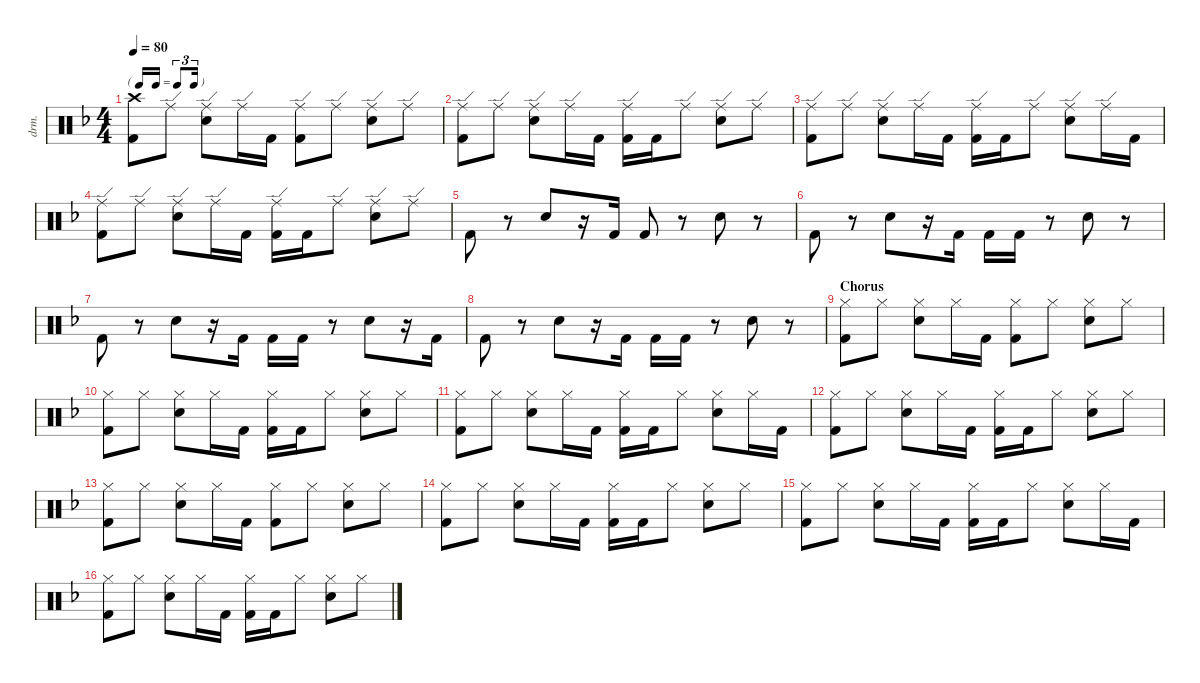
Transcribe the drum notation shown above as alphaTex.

\defaultSystemsLayout 4
\hideDynamics
\bracketExtendMode nobrackets
\otherSystemsTrackNameOrientation horizontal
\track ("Drumkit" "drm.") {instrument percussion}
\staff {score}
\articulation defaults
\ts (4 4)
\tf triplet16th
\tempo 80
\clef neutral
\ks dminor
("Kick (hit) 2"{acc forcenatural} "Crash high (hit)"{acc forcenatural}).8{dy mf beam Down} "Ride (edge)"{acc forcenatural}.8{beam Down} ("Snare (hit) 2"{acc forcenatural} "Ride (edge)"{acc forcenatural}).8{beam Down} "Ride (edge)"{acc forcenatural}.16{beam Down} "Kick (hit) 2"{acc forcenatural}.16{beam Down} ("Kick (hit) 2"{acc forcenatural} "Ride (edge)"{acc forcenatural}).8{beam Down} "Ride (edge)"{acc forcenatural}.8{beam Down} ("Snare (hit) 2"{acc forcenatural} "Ride (edge)"{acc forcenatural}).8{beam Down} "Ride (edge)"{acc forcenatural}.8{beam Down} |
("Kick (hit) 2"{acc forcenatural} "Ride (edge)"{acc forcenatural}).8{beam Down} "Ride (edge)"{acc forcenatural}.8{beam Down} ("Snare (hit) 2"{acc forcenatural} "Ride (edge)"{acc forcenatural}).8{beam Down} "Ride (edge)"{acc forcenatural}.16{beam Down} "Kick (hit) 2"{acc forcenatural}.16{beam Down} ("Kick (hit) 2"{acc forcenatural} "Ride (edge)"{acc forcenatural}).16{beam Down} "Kick (hit) 2"{acc forcenatural}.16{beam Down} "Ride (edge)"{acc forcenatural}.8{beam Down} ("Snare (hit) 2"{acc forcenatural} "Ride (edge)"{acc forcenatural}).8{beam Down} "Ride (edge)"{acc forcenatural}.8{beam Down} |
("Kick (hit) 2"{acc forcenatural} "Ride (edge)"{acc forcenatural}).8{beam Down} "Ride (edge)"{acc forcenatural}.8{beam Down} ("Snare (hit) 2"{acc forcenatural} "Ride (edge)"{acc forcenatural}).8{beam Down} "Ride (edge)"{acc forcenatural}.16{beam Down} "Kick (hit) 2"{acc forcenatural}.16{beam Down} ("Kick (hit) 2"{acc forcenatural} "Ride (edge)"{acc forcenatural}).16{beam Down} "Kick (hit) 2"{acc forcenatural}.16{beam Down} "Ride (edge)"{acc forcenatural}.8{beam Down} ("Snare (hit) 2"{acc forcenatural} "Ride (edge)"{acc forcenatural}).8{beam Down} "Ride (edge)"{acc forcenatural}.16{beam Down} "Kick (hit) 2"{acc forcenatural}.16{beam Down} |
("Kick (hit) 2"{acc forcenatural} "Ride (edge)"{acc forcenatural}).8{beam Down} "Ride (edge)"{acc forcenatural}.8{beam Down} ("Snare (hit) 2"{acc forcenatural} "Ride (edge)"{acc forcenatural}).8{beam Down} "Ride (edge)"{acc forcenatural}.16{beam Down} "Kick (hit) 2"{acc forcenatural}.16{beam Down} ("Kick (hit) 2"{acc forcenatural} "Ride (edge)"{acc forcenatural}).16{beam Down} "Kick (hit) 2"{acc forcenatural}.16{beam Down} "Ride (edge)"{acc forcenatural}.8{beam Down} ("Snare (hit) 2"{acc forcenatural} "Ride (edge)"{acc forcenatural}).8{beam Down} "Ride (edge)"{acc forcenatural}.8{beam Down} |
"Kick (hit) 2"{acc forcenatural}.8{beam Down} r.8{beam Down} "Snare (hit) 2"{acc forcenatural}.8{beam Up} r.16{beam Up} "Kick (hit) 2"{acc forcenatural}.16{beam Up} "Kick (hit) 2"{acc forcenatural}.8{beam Up} r.8{beam Up} "Snare (hit) 2"{acc forcenatural}.8{beam Down} r.8{beam Down} |
"Kick (hit) 2"{acc forcenatural}.8{beam Down} r.8{beam Down} "Snare (hit) 2"{acc forcenatural}.8{beam Down} r.16{beam Down} "Kick (hit) 2"{acc forcenatural}.16{beam Down} "Kick (hit) 2"{acc forcenatural}.16{beam Down} "Kick (hit) 2"{acc forcenatural}.16{beam Down} r.8{beam Down} "Snare (hit) 2"{acc forcenatural}.8{beam Down} r.8{beam Down} |
"Kick (hit) 2"{acc forcenatural}.8{beam Down} r.8{beam Down} "Snare (hit) 2"{acc forcenatural}.8{beam Down} r.16{beam Down} "Kick (hit) 2"{acc forcenatural}.16{beam Down} "Kick (hit) 2"{acc forcenatural}.16{beam Down} "Kick (hit) 2"{acc forcenatural}.16{beam Down} r.8{beam Down} "Snare (hit) 2"{acc forcenatural}.8{beam Down} r.16{beam Down} "Kick (hit) 2"{acc forcenatural}.16{beam Down} |
"Kick (hit) 2"{acc forcenatural}.8{beam Down} r.8{beam Down} "Snare (hit) 2"{acc forcenatural}.8{beam Down} r.16{beam Down} "Kick (hit) 2"{acc forcenatural}.16{beam Down} "Kick (hit) 2"{acc forcenatural}.16{beam Down} "Kick (hit) 2"{acc forcenatural}.16{beam Down} r.8{beam Down} "Snare (hit) 2"{acc forcenatural}.8{beam Down} r.8{beam Down} |
\section ("" "Chorus")
("Kick (hit) 2"{acc forcenatural} "Hi-Hat (closed)"{acc forcenatural}).8{beam Down} "Hi-Hat (closed)"{acc forcenatural}.8{beam Down} ("Hi-Hat (closed)"{acc forcenatural} "Snare (hit) 2"{acc forcenatural}).8{beam Down} "Hi-Hat (closed)"{acc forcenatural}.16{beam Down} "Kick (hit) 2"{acc forcenatural}.16{beam Down} ("Hi-Hat (closed)"{acc forcenatural} "Kick (hit) 2"{acc forcenatural}).8{beam Down} "Hi-Hat (closed)"{acc forcenatural}.8{beam Down} ("Hi-Hat (closed)"{acc forcenatural} "Snare (hit) 2"{acc forcenatural}).8{beam Down} "Hi-Hat (closed)"{acc forcenatural}.8{beam Down} |
("Kick (hit) 2"{acc forcenatural} "Hi-Hat (closed)"{acc forcenatural}).8{beam Down} "Hi-Hat (closed)"{acc forcenatural}.8{beam Down} ("Hi-Hat (closed)"{acc forcenatural} "Snare (hit) 2"{acc forcenatural}).8{beam Down} "Hi-Hat (closed)"{acc forcenatural}.16{beam Down} "Kick (hit) 2"{acc forcenatural}.16{beam Down} ("Hi-Hat (closed)"{acc forcenatural} "Kick (hit) 2"{acc forcenatural}).16{beam Down} "Kick (hit) 2"{acc forcenatural}.16{beam Down} "Hi-Hat (closed)"{acc forcenatural}.8{beam Down} ("Snare (hit) 2"{acc forcenatural} "Hi-Hat (closed)"{acc forcenatural}).8{beam Down} "Hi-Hat (closed)"{acc forcenatural}.8{beam Down} |
("Kick (hit) 2"{acc forcenatural} "Hi-Hat (closed)"{acc forcenatural}).8{beam Down} "Hi-Hat (closed)"{acc forcenatural}.8{beam Down} ("Hi-Hat (closed)"{acc forcenatural} "Snare (hit) 2"{acc forcenatural}).8{beam Down} "Hi-Hat (closed)"{acc forcenatural}.16{beam Down} "Kick (hit) 2"{acc forcenatural}.16{beam Down} ("Hi-Hat (closed)"{acc forcenatural} "Kick (hit) 2"{acc forcenatural}).16{beam Down} "Kick (hit) 2"{acc forcenatural}.16{beam Down} "Hi-Hat (closed)"{acc forcenatural}.8{beam Down} ("Hi-Hat (closed)"{acc forcenatural} "Snare (hit) 2"{acc forcenatural}).8{beam Down} "Hi-Hat (closed)"{acc forcenatural}.16{beam Down} "Kick (hit) 2"{acc forcenatural}.16{beam Down} |
("Kick (hit) 2"{acc forcenatural} "Hi-Hat (closed)"{acc forcenatural}).8{beam Down} "Hi-Hat (closed)"{acc forcenatural}.8{beam Down} ("Hi-Hat (closed)"{acc forcenatural} "Snare (hit) 2"{acc forcenatural}).8{beam Down} "Hi-Hat (closed)"{acc forcenatural}.16{beam Down} "Kick (hit) 2"{acc forcenatural}.16{beam Down} ("Hi-Hat (closed)"{acc forcenatural} "Kick (hit) 2"{acc forcenatural}).16{beam Down} "Kick (hit) 2"{acc forcenatural}.16{beam Down} "Hi-Hat (closed)"{acc forcenatural}.8{beam Down} ("Snare (hit) 2"{acc forcenatural} "Hi-Hat (closed)"{acc forcenatural}).8{beam Down} "Hi-Hat (closed)"{acc forcenatural}.8{beam Down} |
("Kick (hit) 2"{acc forcenatural} "Hi-Hat (closed)"{acc forcenatural}).8{beam Down} "Hi-Hat (closed)"{acc forcenatural}.8{beam Down} ("Hi-Hat (closed)"{acc forcenatural} "Snare (hit) 2"{acc forcenatural}).8{beam Down} "Hi-Hat (closed)"{acc forcenatural}.16{beam Down} "Kick (hit) 2"{acc forcenatural}.16{beam Down} ("Hi-Hat (closed)"{acc forcenatural} "Kick (hit) 2"{acc forcenatural}).8{beam Down} "Hi-Hat (closed)"{acc forcenatural}.8{beam Down} ("Hi-Hat (closed)"{acc forcenatural} "Snare (hit) 2"{acc forcenatural}).8{beam Down} "Hi-Hat (closed)"{acc forcenatural}.8{beam Down} |
("Kick (hit) 2"{acc forcenatural} "Hi-Hat (closed)"{acc forcenatural}).8{beam Down} "Hi-Hat (closed)"{acc forcenatural}.8{beam Down} ("Hi-Hat (closed)"{acc forcenatural} "Snare (hit) 2"{acc forcenatural}).8{beam Down} "Hi-Hat (closed)"{acc forcenatural}.16{beam Down} "Kick (hit) 2"{acc forcenatural}.16{beam Down} ("Hi-Hat (closed)"{acc forcenatural} "Kick (hit) 2"{acc forcenatural}).16{beam Down} "Kick (hit) 2"{acc forcenatural}.16{beam Down} "Hi-Hat (closed)"{acc forcenatural}.8{beam Down} ("Snare (hit) 2"{acc forcenatural} "Hi-Hat (closed)"{acc forcenatural}).8{beam Down} "Hi-Hat (closed)"{acc forcenatural}.8{beam Down} |
("Kick (hit) 2"{acc forcenatural} "Hi-Hat (closed)"{acc forcenatural}).8{beam Down} "Hi-Hat (closed)"{acc forcenatural}.8{beam Down} ("Hi-Hat (closed)"{acc forcenatural} "Snare (hit) 2"{acc forcenatural}).8{beam Down} "Hi-Hat (closed)"{acc forcenatural}.16{beam Down} "Kick (hit) 2"{acc forcenatural}.16{beam Down} ("Hi-Hat (closed)"{acc forcenatural} "Kick (hit) 2"{acc forcenatural}).16{beam Down} "Kick (hit) 2"{acc forcenatural}.16{beam Down} "Hi-Hat (closed)"{acc forcenatural}.8{beam Down} ("Hi-Hat (closed)"{acc forcenatural} "Snare (hit) 2"{acc forcenatural}).8{beam Down} "Hi-Hat (closed)"{acc forcenatural}.16{beam Down} "Kick (hit) 2"{acc forcenatural}.16{beam Down} |
("Kick (hit) 2"{acc forcenatural} "Hi-Hat (closed)"{acc forcenatural}).8{beam Down} "Hi-Hat (closed)"{acc forcenatural}.8{beam Down} ("Hi-Hat (closed)"{acc forcenatural} "Snare (hit) 2"{acc forcenatural}).8{beam Down} "Hi-Hat (closed)"{acc forcenatural}.16{beam Down} "Kick (hit) 2"{acc forcenatural}.16{beam Down} ("Hi-Hat (closed)"{acc forcenatural} "Kick (hit) 2"{acc forcenatural}).16{beam Down} "Kick (hit) 2"{acc forcenatural}.16{beam Down} "Hi-Hat (closed)"{acc forcenatural}.8{beam Down} ("Snare (hit) 2"{acc forcenatural} "Hi-Hat (closed)"{acc forcenatural}).8{beam Down} "Hi-Hat (closed)"{acc forcenatural}.8{beam Down}
